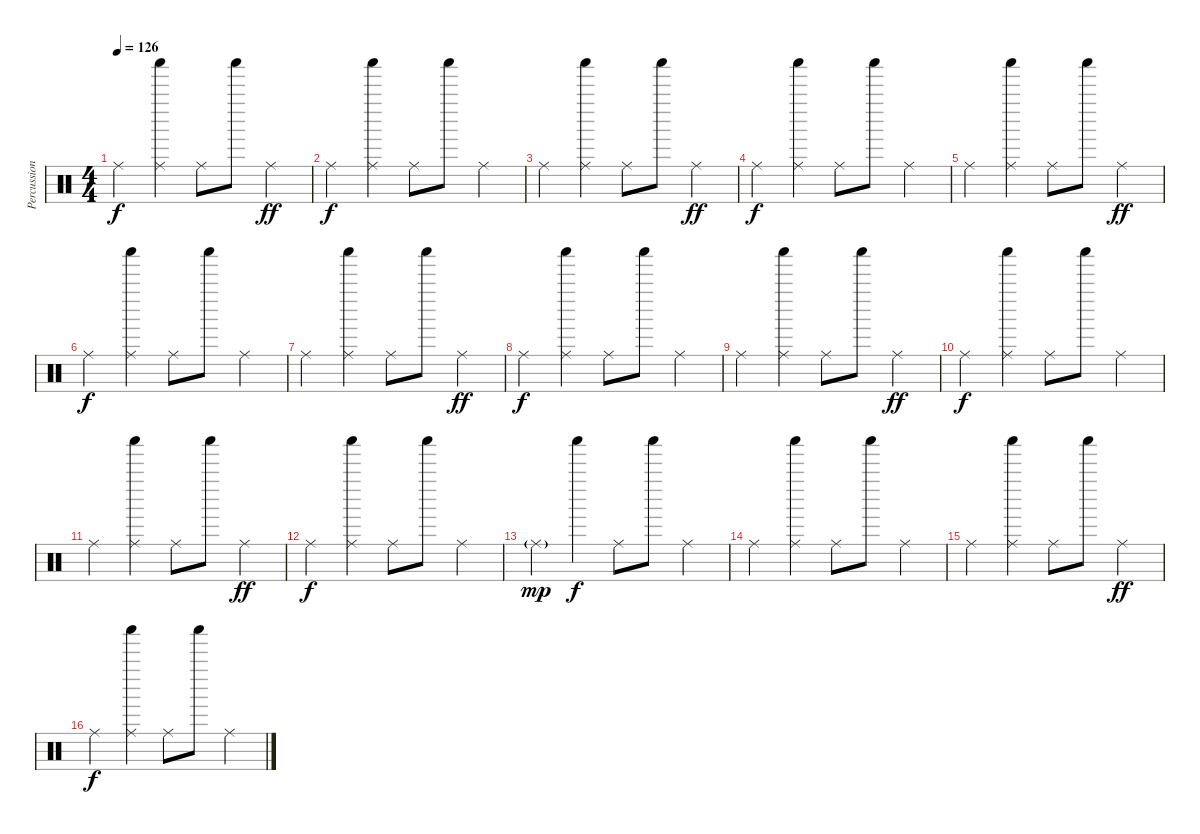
\track ("Percussion" "Percussion") {instrument percussion}
\staff {score}
\articulation defaults
\ts (4 4)
\tempo 126
\clef neutral
\ks c "Ride (middle)".4{dy f}
("Ride (middle)" "Shaker (hit)").4 "Ride (middle)".8 "Shaker (hit)".8 "Ride (middle)".4{dy ff} |
"Ride (middle)".4{dy f} ("Ride (middle)" "Shaker (hit)").4 "Ride (middle)".8 "Shaker (hit)".8 "Ride (middle)".4 |
"Ride (middle)".4 ("Ride (middle)" "Shaker (hit)").4 "Ride (middle)".8 "Shaker (hit)".8 "Ride (middle)".4{dy ff} |
"Ride (middle)".4{dy f} ("Ride (middle)" "Shaker (hit)").4 "Ride (middle)".8 "Shaker (hit)".8 "Ride (middle)".4 |
"Ride (middle)".4 ("Ride (middle)" "Shaker (hit)").4 "Ride (middle)".8 "Shaker (hit)".8 "Ride (middle)".4{dy ff} |
"Ride (middle)".4{dy f} ("Ride (middle)" "Shaker (hit)").4 "Ride (middle)".8 "Shaker (hit)".8 "Ride (middle)".4 |
"Ride (middle)".4 ("Ride (middle)" "Shaker (hit)").4 "Ride (middle)".8 "Shaker (hit)".8 "Ride (middle)".4{dy ff} |
"Ride (middle)".4{dy f} ("Ride (middle)" "Shaker (hit)").4 "Ride (middle)".8 "Shaker (hit)".8 "Ride (middle)".4 |
"Ride (middle)".4 ("Ride (middle)" "Shaker (hit)").4 "Ride (middle)".8 "Shaker (hit)".8 "Ride (middle)".4{dy ff} |
"Ride (middle)".4{dy f} ("Ride (middle)" "Shaker (hit)").4 "Ride (middle)".8 "Shaker (hit)".8 "Ride (middle)".4 |
"Ride (middle)".4 ("Ride (middle)" "Shaker (hit)").4 "Ride (middle)".8 "Shaker (hit)".8 "Ride (middle)".4{dy ff} |
"Ride (middle)".4{dy f} ("Ride (middle)" "Shaker (hit)").4 "Ride (middle)".8 "Shaker (hit)".8 "Ride (middle)".4 |
"Ride (middle)"{g}.4{dy mp} "Shaker (hit)".4{dy f} "Ride (middle)".8 "Shaker (hit)".8 "Ride (middle)".4 |
"Ride (middle)".4 ("Ride (middle)" "Shaker (hit)").4 "Ride (middle)".8 "Shaker (hit)".8 "Ride (middle)".4 |
"Ride (middle)".4 ("Ride (middle)" "Shaker (hit)").4 "Ride (middle)".8 "Shaker (hit)".8 "Ride (middle)".4{dy ff} |
"Ride (middle)".4{dy f} ("Ride (middle)" "Shaker (hit)").4 "Ride (middle)".8 "Shaker (hit)".8 "Ride (middle)".4
